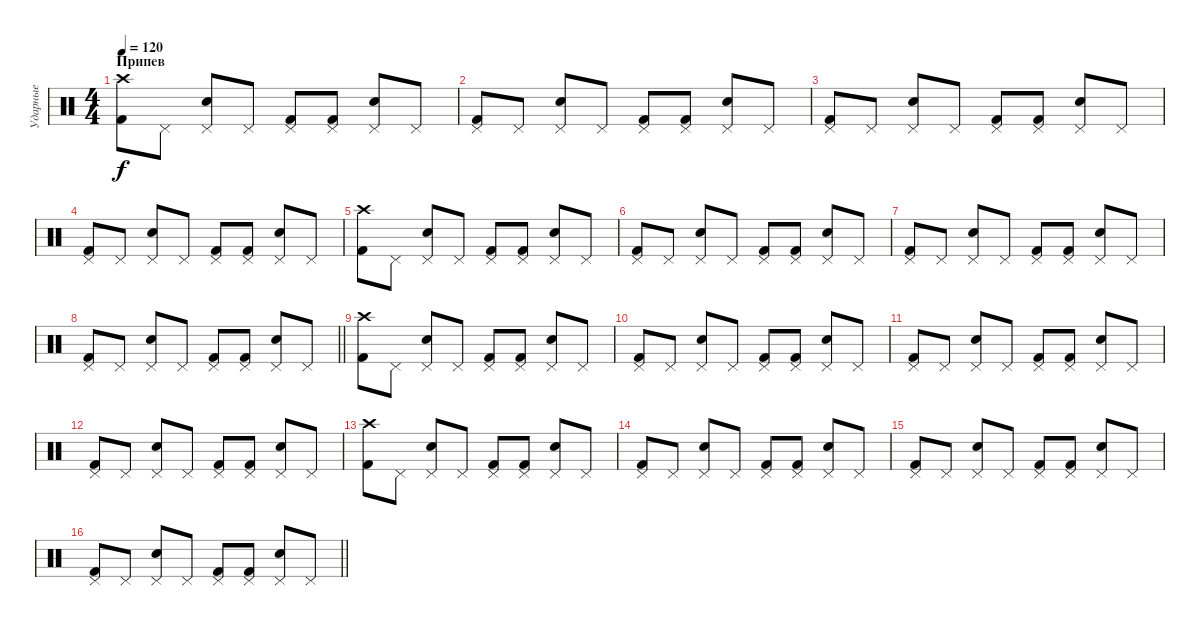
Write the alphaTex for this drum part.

\track ("Ударные" "Ударные") {instrument percussion}
\staff {score}
\articulation defaults
\ts (4 4)
\section ("" "Припев")
\tempo 120
\clef neutral
\ks c
("Kick (hit) 2" "Crash high (hit)").8{dy f} "Pedal Hi-Hat (hit)".8 ("Electric Snare (hit)" "Pedal Hi-Hat (hit)").8 "Pedal Hi-Hat (hit)".8 ("Kick (hit) 2" "Pedal Hi-Hat (hit)").8 ("Kick (hit) 2" "Pedal Hi-Hat (hit)").8 ("Electric Snare (hit)" "Pedal Hi-Hat (hit)").8 "Pedal Hi-Hat (hit)".8 |
("Kick (hit) 2" "Pedal Hi-Hat (hit)").8 "Pedal Hi-Hat (hit)".8 ("Electric Snare (hit)" "Pedal Hi-Hat (hit)").8 "Pedal Hi-Hat (hit)".8 ("Kick (hit) 2" "Pedal Hi-Hat (hit)").8 ("Kick (hit) 2" "Pedal Hi-Hat (hit)").8 ("Electric Snare (hit)" "Pedal Hi-Hat (hit)").8 "Pedal Hi-Hat (hit)".8 |
("Kick (hit) 2" "Pedal Hi-Hat (hit)").8 "Pedal Hi-Hat (hit)".8 ("Electric Snare (hit)" "Pedal Hi-Hat (hit)").8 "Pedal Hi-Hat (hit)".8 ("Kick (hit) 2" "Pedal Hi-Hat (hit)").8 ("Kick (hit) 2" "Pedal Hi-Hat (hit)").8 ("Electric Snare (hit)" "Pedal Hi-Hat (hit)").8 "Pedal Hi-Hat (hit)".8 |
("Kick (hit) 2" "Pedal Hi-Hat (hit)").8 "Pedal Hi-Hat (hit)".8 ("Electric Snare (hit)" "Pedal Hi-Hat (hit)").8 "Pedal Hi-Hat (hit)".8 ("Kick (hit) 2" "Pedal Hi-Hat (hit)").8 ("Kick (hit) 2" "Pedal Hi-Hat (hit)").8 ("Electric Snare (hit)" "Pedal Hi-Hat (hit)").8 "Pedal Hi-Hat (hit)".8 |
("Kick (hit) 2" "Crash high (hit)").8 "Pedal Hi-Hat (hit)".8 ("Electric Snare (hit)" "Pedal Hi-Hat (hit)").8 "Pedal Hi-Hat (hit)".8 ("Kick (hit) 2" "Pedal Hi-Hat (hit)").8 ("Kick (hit) 2" "Pedal Hi-Hat (hit)").8 ("Electric Snare (hit)" "Pedal Hi-Hat (hit)").8 "Pedal Hi-Hat (hit)".8 |
("Kick (hit) 2" "Pedal Hi-Hat (hit)").8 "Pedal Hi-Hat (hit)".8 ("Electric Snare (hit)" "Pedal Hi-Hat (hit)").8 "Pedal Hi-Hat (hit)".8 ("Kick (hit) 2" "Pedal Hi-Hat (hit)").8 ("Kick (hit) 2" "Pedal Hi-Hat (hit)").8 ("Electric Snare (hit)" "Pedal Hi-Hat (hit)").8 "Pedal Hi-Hat (hit)".8 |
("Kick (hit) 2" "Pedal Hi-Hat (hit)").8 "Pedal Hi-Hat (hit)".8 ("Electric Snare (hit)" "Pedal Hi-Hat (hit)").8 "Pedal Hi-Hat (hit)".8 ("Kick (hit) 2" "Pedal Hi-Hat (hit)").8 ("Kick (hit) 2" "Pedal Hi-Hat (hit)").8 ("Electric Snare (hit)" "Pedal Hi-Hat (hit)").8 "Pedal Hi-Hat (hit)".8 |
\barLineRight lightlight
("Kick (hit) 2" "Pedal Hi-Hat (hit)").8 "Pedal Hi-Hat (hit)".8 ("Electric Snare (hit)" "Pedal Hi-Hat (hit)").8 "Pedal Hi-Hat (hit)".8 ("Kick (hit) 2" "Pedal Hi-Hat (hit)").8 ("Kick (hit) 2" "Pedal Hi-Hat (hit)").8 ("Electric Snare (hit)" "Pedal Hi-Hat (hit)").8 "Pedal Hi-Hat (hit)".8 |
("Kick (hit) 2" "Crash high (hit)").8 "Pedal Hi-Hat (hit)".8 ("Electric Snare (hit)" "Pedal Hi-Hat (hit)").8 "Pedal Hi-Hat (hit)".8 ("Kick (hit) 2" "Pedal Hi-Hat (hit)").8 ("Kick (hit) 2" "Pedal Hi-Hat (hit)").8 ("Electric Snare (hit)" "Pedal Hi-Hat (hit)").8 "Pedal Hi-Hat (hit)".8 |
("Kick (hit) 2" "Pedal Hi-Hat (hit)").8 "Pedal Hi-Hat (hit)".8 ("Electric Snare (hit)" "Pedal Hi-Hat (hit)").8 "Pedal Hi-Hat (hit)".8 ("Kick (hit) 2" "Pedal Hi-Hat (hit)").8 ("Kick (hit) 2" "Pedal Hi-Hat (hit)").8 ("Electric Snare (hit)" "Pedal Hi-Hat (hit)").8 "Pedal Hi-Hat (hit)".8 |
("Kick (hit) 2" "Pedal Hi-Hat (hit)").8 "Pedal Hi-Hat (hit)".8 ("Electric Snare (hit)" "Pedal Hi-Hat (hit)").8 "Pedal Hi-Hat (hit)".8 ("Kick (hit) 2" "Pedal Hi-Hat (hit)").8 ("Kick (hit) 2" "Pedal Hi-Hat (hit)").8 ("Electric Snare (hit)" "Pedal Hi-Hat (hit)").8 "Pedal Hi-Hat (hit)".8 |
("Kick (hit) 2" "Pedal Hi-Hat (hit)").8 "Pedal Hi-Hat (hit)".8 ("Electric Snare (hit)" "Pedal Hi-Hat (hit)").8 "Pedal Hi-Hat (hit)".8 ("Kick (hit) 2" "Pedal Hi-Hat (hit)").8 ("Kick (hit) 2" "Pedal Hi-Hat (hit)").8 ("Electric Snare (hit)" "Pedal Hi-Hat (hit)").8 "Pedal Hi-Hat (hit)".8 |
("Kick (hit) 2" "Crash high (hit)").8 "Pedal Hi-Hat (hit)".8 ("Electric Snare (hit)" "Pedal Hi-Hat (hit)").8 "Pedal Hi-Hat (hit)".8 ("Kick (hit) 2" "Pedal Hi-Hat (hit)").8 ("Kick (hit) 2" "Pedal Hi-Hat (hit)").8 ("Electric Snare (hit)" "Pedal Hi-Hat (hit)").8 "Pedal Hi-Hat (hit)".8 |
("Kick (hit) 2" "Pedal Hi-Hat (hit)").8 "Pedal Hi-Hat (hit)".8 ("Electric Snare (hit)" "Pedal Hi-Hat (hit)").8 "Pedal Hi-Hat (hit)".8 ("Kick (hit) 2" "Pedal Hi-Hat (hit)").8 ("Kick (hit) 2" "Pedal Hi-Hat (hit)").8 ("Electric Snare (hit)" "Pedal Hi-Hat (hit)").8 "Pedal Hi-Hat (hit)".8 |
("Kick (hit) 2" "Pedal Hi-Hat (hit)").8 "Pedal Hi-Hat (hit)".8 ("Electric Snare (hit)" "Pedal Hi-Hat (hit)").8 "Pedal Hi-Hat (hit)".8 ("Kick (hit) 2" "Pedal Hi-Hat (hit)").8 ("Kick (hit) 2" "Pedal Hi-Hat (hit)").8 ("Electric Snare (hit)" "Pedal Hi-Hat (hit)").8 "Pedal Hi-Hat (hit)".8 |
\barLineRight lightlight
("Kick (hit) 2" "Pedal Hi-Hat (hit)").8 "Pedal Hi-Hat (hit)".8 ("Electric Snare (hit)" "Pedal Hi-Hat (hit)").8 "Pedal Hi-Hat (hit)".8 ("Kick (hit) 2" "Pedal Hi-Hat (hit)").8 ("Kick (hit) 2" "Pedal Hi-Hat (hit)").8 ("Electric Snare (hit)" "Pedal Hi-Hat (hit)").8 "Pedal Hi-Hat (hit)".8
